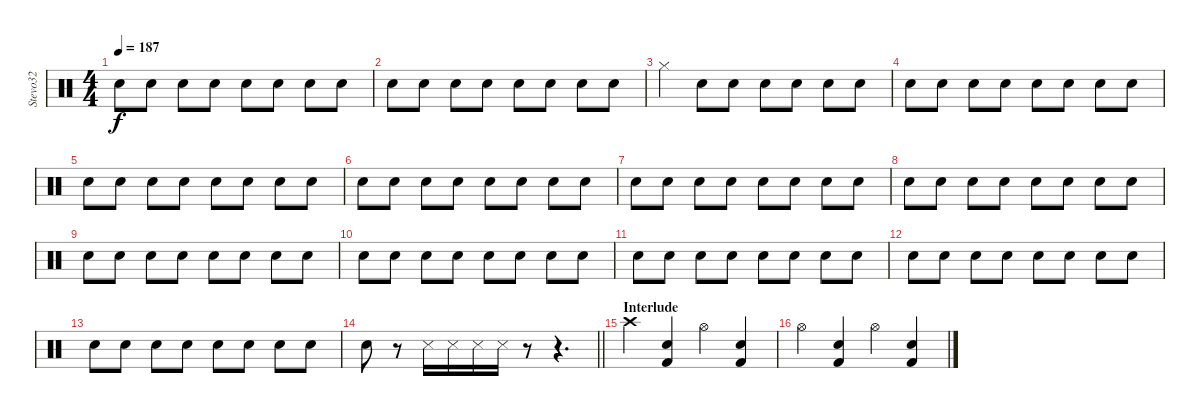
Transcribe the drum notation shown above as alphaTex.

\track ("Stevo32" "Stevo32") {instrument percussion}
\staff {score}
\articulation defaults
\ts (4 4)
\tempo 187
\clef neutral
\ks c "Snare (hit) 2".8{dy f} "Snare (hit) 2".8 "Snare (hit) 2".8 "Snare (hit) 2".8 "Snare (hit) 2".8 "Snare (hit) 2".8 "Snare (hit) 2".8 "Snare (hit) 2".8
|
"Snare (hit) 2".8 "Snare (hit) 2".8 "Snare (hit) 2".8 "Snare (hit) 2".8 "Snare (hit) 2".8 "Snare (hit) 2".8 "Snare (hit) 2".8 "Snare (hit) 2".8 |
"Hi-Hat (closed)".4 "Snare (hit) 2".8 "Snare (hit) 2".8 "Snare (hit) 2".8 "Snare (hit) 2".8 "Snare (hit) 2".8 "Snare (hit) 2".8 |
"Snare (hit) 2".8 "Snare (hit) 2".8 "Snare (hit) 2".8 "Snare (hit) 2".8 "Snare (hit) 2".8 "Snare (hit) 2".8 "Snare (hit) 2".8 "Snare (hit) 2".8 |
"Snare (hit) 2".8 "Snare (hit) 2".8 "Snare (hit) 2".8 "Snare (hit) 2".8 "Snare (hit) 2".8 "Snare (hit) 2".8 "Snare (hit) 2".8 "Snare (hit) 2".8 |
"Snare (hit) 2".8 "Snare (hit) 2".8 "Snare (hit) 2".8 "Snare (hit) 2".8 "Snare (hit) 2".8 "Snare (hit) 2".8 "Snare (hit) 2".8 "Snare (hit) 2".8 |
"Snare (hit) 2".8 "Snare (hit) 2".8 "Snare (hit) 2".8 "Snare (hit) 2".8 "Snare (hit) 2".8 "Snare (hit) 2".8 "Snare (hit) 2".8 "Snare (hit) 2".8 |
"Snare (hit) 2".8 "Snare (hit) 2".8 "Snare (hit) 2".8 "Snare (hit) 2".8 "Snare (hit) 2".8 "Snare (hit) 2".8 "Snare (hit) 2".8 "Snare (hit) 2".8 |
"Snare (hit) 2".8 "Snare (hit) 2".8 "Snare (hit) 2".8 "Snare (hit) 2".8 "Snare (hit) 2".8 "Snare (hit) 2".8 "Snare (hit) 2".8 "Snare (hit) 2".8 |
"Snare (hit) 2".8 "Snare (hit) 2".8 "Snare (hit) 2".8 "Snare (hit) 2".8 "Snare (hit) 2".8 "Snare (hit) 2".8 "Snare (hit) 2".8 "Snare (hit) 2".8 |
"Snare (hit) 2".8 "Snare (hit) 2".8 "Snare (hit) 2".8 "Snare (hit) 2".8 "Snare (hit) 2".8 "Snare (hit) 2".8 "Snare (hit) 2".8 "Snare (hit) 2".8 |
"Snare (hit) 2".8 "Snare (hit) 2".8 "Snare (hit) 2".8 "Snare (hit) 2".8 "Snare (hit) 2".8 "Snare (hit) 2".8 "Snare (hit) 2".8 "Snare (hit) 2".8 |
"Snare (hit) 2".8 "Snare (hit) 2".8 "Snare (hit) 2".8 "Snare (hit) 2".8 "Snare (hit) 2".8 "Snare (hit) 2".8 "Snare (hit) 2".8 "Snare (hit) 2".8 |
\barLineRight lightlight "Snare (hit) 2".8
r.8 "Snare (side stick) 3".16 "Snare (side stick) 3".16 "Snare (side stick) 3".16 "Snare (side stick) 3".16 r.8 r.4{d} |
\section ("" "Interlude")
"Crash high (hit)".4 ("Kick (hit) 2" "Snare (hit) 2").4 "Hi-Hat (open)".4 ("Kick (hit) 2" "Snare (hit) 2").4 |
"Hi-Hat (open)".4 ("Kick (hit) 2" "Snare (hit) 2").4 "Hi-Hat (open)".4 ("Kick (hit) 2" "Snare (hit) 2").4
